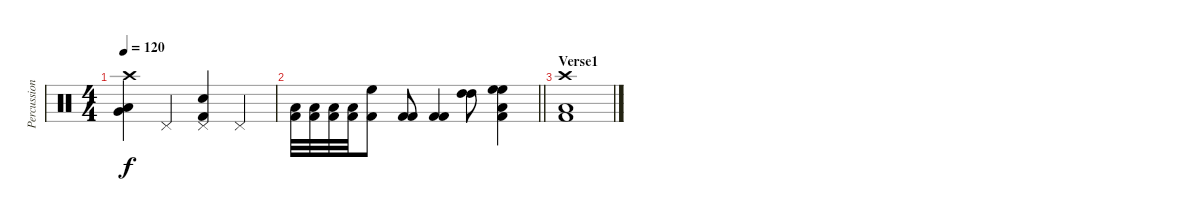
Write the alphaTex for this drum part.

\track ("Percussion" "Percussion") {instrument percussion}
\staff {score}
\articulation defaults
\ts (4 4)
\tempo 120
\clef neutral
\ks c
("Crash high (hit)" "Low Floor Tom (hit)" "Very Low Tom (hit)").4{dy f} "Pedal Hi-Hat (hit)".4 ("Pedal Hi-Hat (hit)" "Snare (hit) 2" "Kick (hit) 2").4 "Pedal Hi-Hat (hit)".4 |
\barLineRight lightlight
("Low Floor Tom (hit)" "Kick (hit) 2").32 ("Low Floor Tom (hit)" "Kick (hit) 2").32 ("Low Floor Tom (hit)" "Kick (hit) 2").32 ("Low Floor Tom (hit)" "Kick (hit) 2").32 ("High Floor Tom (hit)" "Kick (hit) 2").8 ("Kick (hit) 2" "Kick (hit) 2").8 ("Kick (hit) 2" "Kick (hit) 2").4 ("High Tom (hit)" "High Tom (hit)").8 ("Low Floor Tom (hit)" "High Floor Tom (hit)" "High Floor Tom (hit)" "Kick (hit) 2").4 |
\section ("" "Verse1")
("Crash high (hit)" "Low Floor Tom (hit)" "Kick (hit) 2").1
